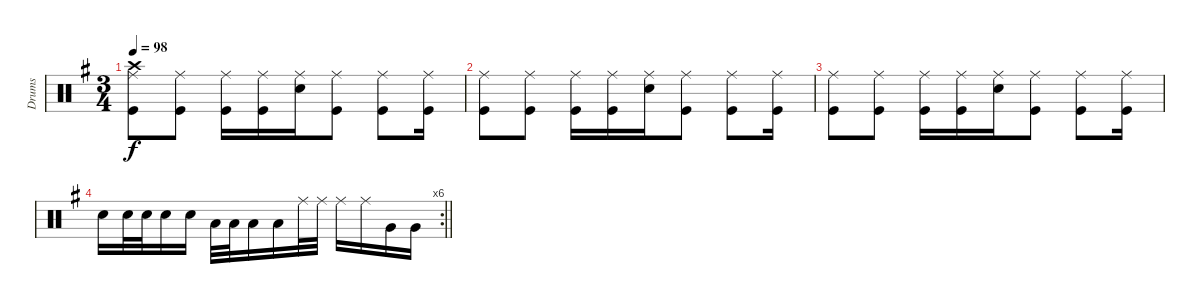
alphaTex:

\track ("Drums" "Drums") {instrument percussion}
\staff {score}
\articulation defaults
\ts (3 4)
\tempo 98
\clef neutral
\ks eminor
("Crash high (hit)" "Ride (middle)" "Kick (hit)").8{dy f} ("Ride (middle)" "Kick (hit)").8 ("Ride (middle)" "Kick (hit)").16 ("Ride (middle)" "Kick (hit)").16 ("Ride (middle)" "Electric Snare (hit)").16 ("Ride (middle)" "Kick (hit)").8 ("Ride (middle)" "Kick (hit)").8 ("Ride (middle)" "Kick (hit)").16 |
("Ride (middle)" "Kick (hit)").8 ("Ride (middle)" "Kick (hit)").8 ("Ride (middle)" "Kick (hit)").16 ("Ride (middle)" "Kick (hit)").16 ("Ride (middle)" "Electric Snare (hit)").16 ("Ride (middle)" "Kick (hit)").8 ("Ride (middle)" "Kick (hit)").8 ("Ride (middle)" "Kick (hit)").16 |
("Ride (middle)" "Kick (hit)").8 ("Ride (middle)" "Kick (hit)").8 ("Ride (middle)" "Kick (hit)").16 ("Ride (middle)" "Kick (hit)").16 ("Ride (middle)" "Electric Snare (hit)").16 ("Ride (middle)" "Kick (hit)").8 ("Ride (middle)" "Kick (hit)").8 ("Ride (middle)" "Kick (hit)").16 |
\rc 6
\barLineRight lightlight "Electric Snare (hit)".16 "Electric Snare (hit)".32 "Electric Snare (hit)".32 "Electric Snare (hit)".16 "Electric Snare (hit)".16 "Low Tom (hit)".32 "Low Tom (hit)".32 "Low Tom (hit)".16 "Low Tom (hit)".16 "Ride (middle)".32 "Ride (middle)".32 "Ride (middle)".16 "Ride (middle)".16 "Very Low Tom (hit)".16 "Very Low Tom (hit)".16
